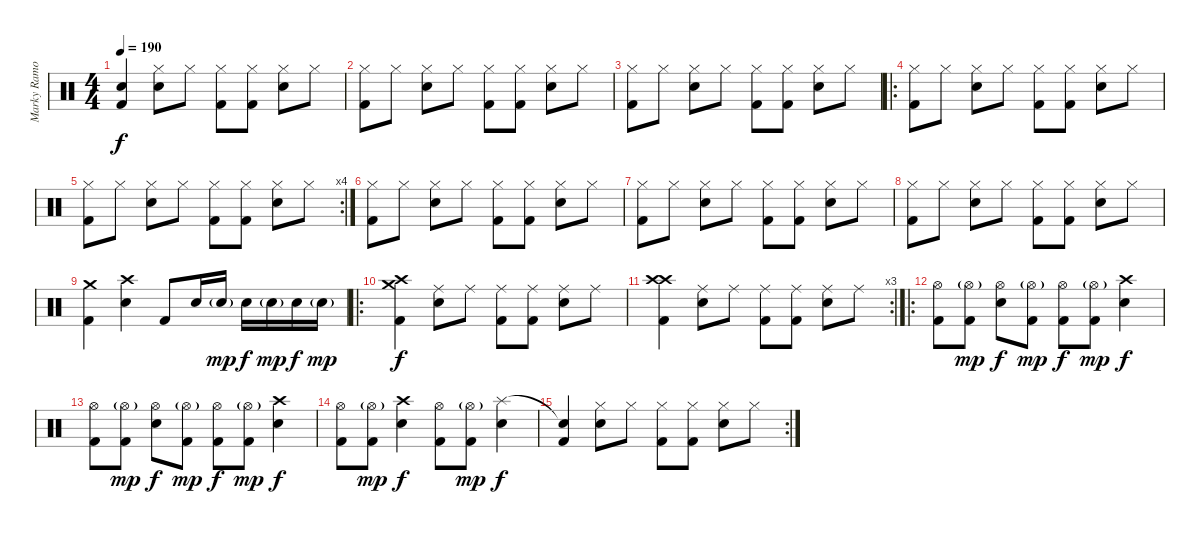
\track ("Marky Ramone" "Marky Ramo") {instrument percussion}
\staff {score}
\articulation defaults
\ts (4 4)
\tempo 190
\clef neutral
\ks c
("Snare (hit)"{t} "Kick (hit) 2").4{dy f} ("Hi-Hat (closed)" "Electric Snare (hit)").8 "Hi-Hat (closed)".8 ("Hi-Hat (closed)" "Kick (hit) 2").8 ("Hi-Hat (closed)" "Kick (hit) 2").8 ("Hi-Hat (closed)" "Electric Snare (hit)").8 "Hi-Hat (closed)".8 |
("Hi-Hat (closed)" "Kick (hit) 2").8 "Hi-Hat (closed)".8 ("Hi-Hat (closed)" "Electric Snare (hit)").8 "Hi-Hat (closed)".8 ("Hi-Hat (closed)" "Kick (hit) 2").8 ("Hi-Hat (closed)" "Kick (hit) 2").8 ("Hi-Hat (closed)" "Electric Snare (hit)").8 "Hi-Hat (closed)".8 |
("Hi-Hat (closed)" "Kick (hit) 2").8 "Hi-Hat (closed)".8 ("Hi-Hat (closed)" "Electric Snare (hit)").8 "Hi-Hat (closed)".8 ("Hi-Hat (closed)" "Kick (hit) 2").8 ("Hi-Hat (closed)" "Kick (hit) 2").8 ("Hi-Hat (closed)" "Electric Snare (hit)").8 "Hi-Hat (closed)".8 |
\ro
("Hi-Hat (closed)" "Kick (hit) 2").8 "Hi-Hat (closed)".8 ("Hi-Hat (closed)" "Electric Snare (hit)").8 "Hi-Hat (closed)".8 ("Hi-Hat (closed)" "Kick (hit) 2").8 ("Hi-Hat (closed)" "Kick (hit) 2").8 ("Hi-Hat (closed)" "Electric Snare (hit)").8 "Hi-Hat (closed)".8 |
\rc 4
("Hi-Hat (closed)" "Kick (hit) 2").8 "Hi-Hat (closed)".8 ("Hi-Hat (closed)" "Electric Snare (hit)").8 "Hi-Hat (closed)".8 ("Hi-Hat (closed)" "Kick (hit) 2").8 ("Hi-Hat (closed)" "Kick (hit) 2").8 ("Hi-Hat (closed)" "Electric Snare (hit)").8 "Hi-Hat (closed)".8 |
("Hi-Hat (closed)" "Kick (hit) 2").8 "Hi-Hat (closed)".8 ("Hi-Hat (closed)" "Electric Snare (hit)").8 "Hi-Hat (closed)".8 ("Hi-Hat (closed)" "Kick (hit) 2").8 ("Hi-Hat (closed)" "Kick (hit) 2").8 ("Hi-Hat (closed)" "Electric Snare (hit)").8 "Hi-Hat (closed)".8 |
("Hi-Hat (closed)" "Kick (hit) 2").8 "Hi-Hat (closed)".8 ("Hi-Hat (closed)" "Electric Snare (hit)").8 "Hi-Hat (closed)".8 ("Hi-Hat (closed)" "Kick (hit) 2").8 ("Hi-Hat (closed)" "Kick (hit) 2").8 ("Hi-Hat (closed)" "Electric Snare (hit)").8 "Hi-Hat (closed)".8 |
("Hi-Hat (closed)" "Kick (hit) 2").8 "Hi-Hat (closed)".8 ("Hi-Hat (closed)" "Electric Snare (hit)").8 "Hi-Hat (closed)".8 ("Hi-Hat (closed)" "Kick (hit) 2").8 ("Hi-Hat (closed)" "Kick (hit) 2").8 ("Hi-Hat (closed)" "Electric Snare (hit)").8 "Hi-Hat (closed)".8 |
("Crash medium (hit)" "Kick (hit) 2").4 ("Crash high (hit)" "Electric Snare (hit)").4 "Kick (hit) 2".8 "Electric Snare (hit)".16 "Electric Snare (hit)"{g}.16{dy mp} "Electric Snare (hit)".16{dy f} "Electric Snare (hit)"{g}.16{dy mp} "Electric Snare (hit)".16{dy f} "Electric Snare (hit)"{g}.16{dy mp} |
\ro
("Crash medium (hit)" "Crash high (hit)" "Kick (hit) 2").4{dy f} ("Ride (middle)" "Electric Snare (hit)").8 "Ride (middle)".8 ("Ride (middle)" "Kick (hit) 2").8 ("Ride (middle)" "Kick (hit) 2").8 ("Ride (middle)" "Electric Snare (hit)").8 "Ride (middle)".8 |
\rc 3
("Crash high (hit)" "Crash high (hit)" "Kick (hit) 2").4 ("Ride (middle)" "Electric Snare (hit)").8 "Ride (middle)".8 ("Ride (middle)" "Kick (hit) 2").8 ("Ride (middle)" "Kick (hit) 2").8 ("Ride (middle)" "Electric Snare (hit)").8 "Ride (middle)".8 |
\ro
("Hi-Hat (open)" "Kick (hit) 2").8 ("Hi-Hat (open)"{g} "Kick (hit) 2").8{dy mp} ("Hi-Hat (open)" "Electric Snare (hit)").8{dy f} ("Hi-Hat (open)"{g} "Kick (hit) 2").8{dy mp} ("Hi-Hat (open)" "Kick (hit) 2").8{dy f} ("Hi-Hat (open)"{g} "Kick (hit) 2").8{dy mp} ("Crash high (hit)" "Electric Snare (hit)").4{dy f} |
("Hi-Hat (open)" "Kick (hit) 2").8 ("Hi-Hat (open)"{g} "Kick (hit) 2").8{dy mp} ("Hi-Hat (open)" "Electric Snare (hit)").8{dy f} ("Hi-Hat (open)"{g} "Kick (hit) 2").8{dy mp} ("Hi-Hat (open)" "Kick (hit) 2").8{dy f} ("Hi-Hat (open)"{g} "Kick (hit) 2").8{dy mp} ("Crash high (hit)" "Electric Snare (hit)").4{dy f} |
("Hi-Hat (open)" "Kick (hit) 2").8 ("Hi-Hat (open)"{g} "Kick (hit) 2").8{dy mp} ("Crash high (hit)" "Electric Snare (hit)").4{dy f} ("Hi-Hat (open)" "Kick (hit) 2").8 ("Hi-Hat (open)"{g} "Kick (hit) 2").8{dy mp} ("Splash (hit)" "Electric Snare (hit)").4{dy f} |
\rc 2
("Snare (hit)"{t} "Kick (hit) 2").4 ("Hi-Hat (closed)" "Electric Snare (hit)").8 "Hi-Hat (closed)".8 ("Hi-Hat (closed)" "Kick (hit) 2").8 ("Hi-Hat (closed)" "Kick (hit) 2").8 ("Hi-Hat (closed)" "Electric Snare (hit)").8 "Hi-Hat (closed)".8
